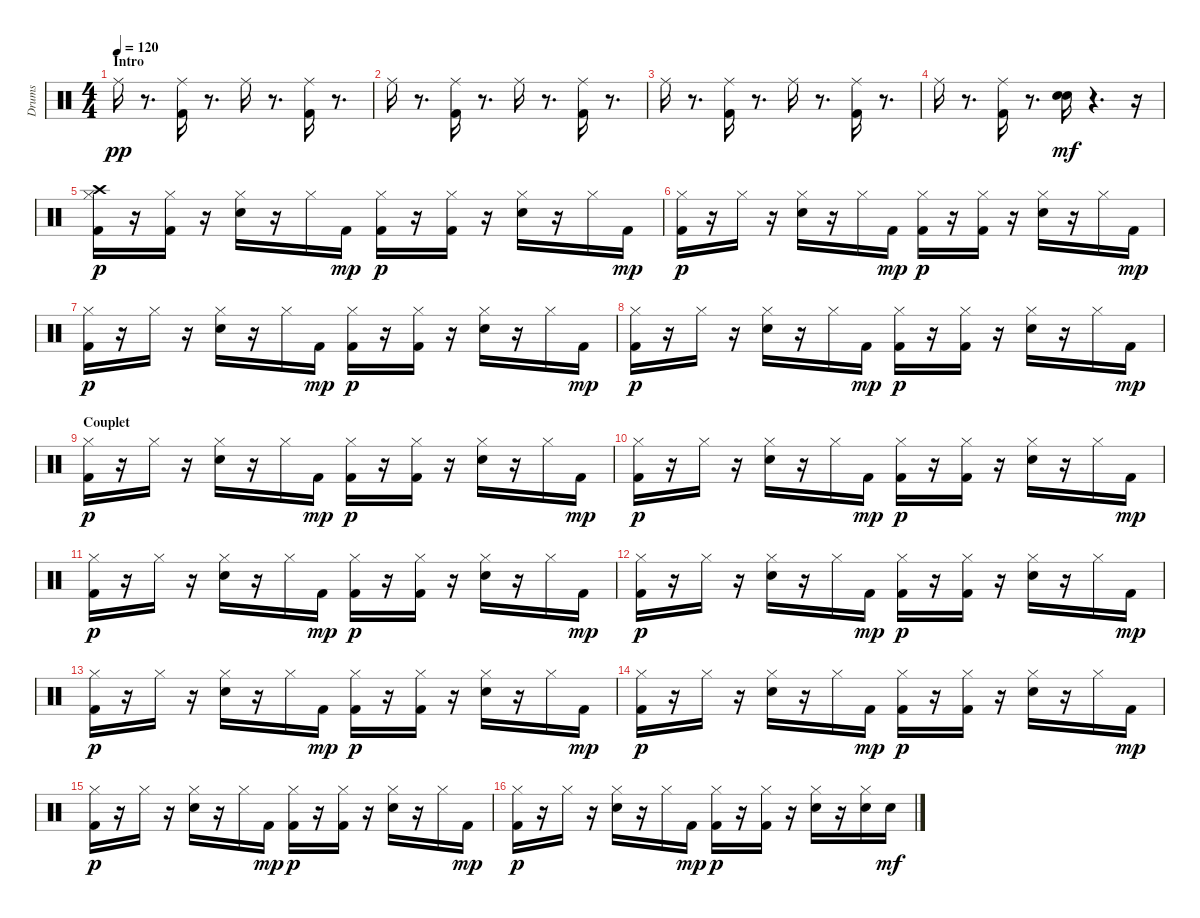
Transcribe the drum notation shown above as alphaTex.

\track ("Drums" "Drums") {instrument percussion}
\staff {score}
\articulation defaults
\ts (4 4)
\section ("" "Intro")
\tempo 120
\clef neutral
\ks c "Ride (middle)".16{dy pp}
r.8{d} ("Kick (hit) 2" "Ride (middle)").16 r.8{d} "Ride (middle)".16 r.8{d} ("Kick (hit) 2" "Ride (middle)").16 r.8{d} |
"Ride (middle)".16 r.8{d} ("Kick (hit) 2" "Ride (middle)").16 r.8{d} "Ride (middle)".16 r.8{d} ("Kick (hit) 2" "Ride (middle)").16 r.8{d} |
"Ride (middle)".16 r.8{d} ("Kick (hit) 2" "Ride (middle)").16 r.8{d} "Ride (middle)".16 r.8{d} ("Kick (hit) 2" "Ride (middle)").16 r.8{d} |
"Ride (middle)".16 r.8{d} ("Kick (hit) 2" "Ride (middle)").16 r.8{d} ("Electric Snare (hit)" "Electric Snare (hit)").16{dy mf} r.4{d} r.16 |
("Kick (hit) 2" "Hi-Hat (closed)" "Crash high (hit)").16{dy p} r.16 ("Kick (hit) 2" "Hi-Hat (closed)").16 r.16 ("Electric Snare (hit)" "Hi-Hat (closed)").16 r.16 "Hi-Hat (closed)".16 "Kick (hit) 2".16{dy mp} ("Kick (hit) 2" "Hi-Hat (closed)").16{dy p} r.16 ("Kick (hit) 2" "Hi-Hat (closed)").16 r.16 ("Electric Snare (hit)" "Hi-Hat (closed)").16 r.16 "Hi-Hat (closed)".16 "Kick (hit) 2".16{dy mp} |
("Kick (hit) 2" "Hi-Hat (closed)").16{dy p} r.16 "Hi-Hat (closed)".16 r.16 ("Electric Snare (hit)" "Hi-Hat (closed)").16 r.16 "Hi-Hat (closed)".16 "Kick (hit) 2".16{dy mp} ("Kick (hit) 2" "Hi-Hat (closed)").16{dy p} r.16 ("Kick (hit) 2" "Hi-Hat (closed)").16 r.16 ("Electric Snare (hit)" "Hi-Hat (closed)").16 r.16 "Hi-Hat (closed)".16 "Kick (hit) 2".16{dy mp} |
("Kick (hit) 2" "Hi-Hat (closed)").16{dy p} r.16 "Hi-Hat (closed)".16 r.16 ("Electric Snare (hit)" "Hi-Hat (closed)").16 r.16 "Hi-Hat (closed)".16 "Kick (hit) 2".16{dy mp} ("Kick (hit) 2" "Hi-Hat (closed)").16{dy p} r.16 ("Kick (hit) 2" "Hi-Hat (closed)").16 r.16 ("Electric Snare (hit)" "Hi-Hat (closed)").16 r.16 "Hi-Hat (closed)".16 "Kick (hit) 2".16{dy mp} |
("Kick (hit) 2" "Hi-Hat (closed)").16{dy p} r.16 "Hi-Hat (closed)".16 r.16 ("Electric Snare (hit)" "Hi-Hat (closed)").16 r.16 "Hi-Hat (closed)".16 "Kick (hit) 2".16{dy mp} ("Kick (hit) 2" "Hi-Hat (closed)").16{dy p} r.16 ("Kick (hit) 2" "Hi-Hat (closed)").16 r.16 ("Electric Snare (hit)" "Hi-Hat (closed)").16 r.16 "Hi-Hat (closed)".16 "Kick (hit) 2".16{dy mp} |
\section ("" "Couplet")
("Kick (hit) 2" "Hi-Hat (closed)").16{dy p} r.16 "Hi-Hat (closed)".16 r.16 ("Electric Snare (hit)" "Hi-Hat (closed)").16 r.16 "Hi-Hat (closed)".16 "Kick (hit) 2".16{dy mp} ("Kick (hit) 2" "Hi-Hat (closed)").16{dy p} r.16 ("Kick (hit) 2" "Hi-Hat (closed)").16 r.16 ("Electric Snare (hit)" "Hi-Hat (closed)").16 r.16 "Hi-Hat (closed)".16 "Kick (hit) 2".16{dy mp} |
("Kick (hit) 2" "Hi-Hat (closed)").16{dy p} r.16 "Hi-Hat (closed)".16 r.16 ("Electric Snare (hit)" "Hi-Hat (closed)").16 r.16 "Hi-Hat (closed)".16 "Kick (hit) 2".16{dy mp} ("Kick (hit) 2" "Hi-Hat (closed)").16{dy p} r.16 ("Kick (hit) 2" "Hi-Hat (closed)").16 r.16 ("Electric Snare (hit)" "Hi-Hat (closed)").16 r.16 "Hi-Hat (closed)".16 "Kick (hit) 2".16{dy mp} |
("Kick (hit) 2" "Hi-Hat (closed)").16{dy p} r.16 "Hi-Hat (closed)".16 r.16 ("Electric Snare (hit)" "Hi-Hat (closed)").16 r.16 "Hi-Hat (closed)".16 "Kick (hit) 2".16{dy mp} ("Kick (hit) 2" "Hi-Hat (closed)").16{dy p} r.16 ("Kick (hit) 2" "Hi-Hat (closed)").16 r.16 ("Electric Snare (hit)" "Hi-Hat (closed)").16 r.16 "Hi-Hat (closed)".16 "Kick (hit) 2".16{dy mp} |
("Kick (hit) 2" "Hi-Hat (closed)").16{dy p} r.16 "Hi-Hat (closed)".16 r.16 ("Electric Snare (hit)" "Hi-Hat (closed)").16 r.16 "Hi-Hat (closed)".16 "Kick (hit) 2".16{dy mp} ("Kick (hit) 2" "Hi-Hat (closed)").16{dy p} r.16 ("Kick (hit) 2" "Hi-Hat (closed)").16 r.16 ("Electric Snare (hit)" "Hi-Hat (closed)").16 r.16 "Hi-Hat (closed)".16 "Kick (hit) 2".16{dy mp} |
("Kick (hit) 2" "Hi-Hat (closed)").16{dy p} r.16 "Hi-Hat (closed)".16 r.16 ("Electric Snare (hit)" "Hi-Hat (closed)").16 r.16 "Hi-Hat (closed)".16 "Kick (hit) 2".16{dy mp} ("Kick (hit) 2" "Hi-Hat (closed)").16{dy p} r.16 ("Kick (hit) 2" "Hi-Hat (closed)").16 r.16 ("Electric Snare (hit)" "Hi-Hat (closed)").16 r.16 "Hi-Hat (closed)".16 "Kick (hit) 2".16{dy mp} |
("Kick (hit) 2" "Hi-Hat (closed)").16{dy p} r.16 "Hi-Hat (closed)".16 r.16 ("Electric Snare (hit)" "Hi-Hat (closed)").16 r.16 "Hi-Hat (closed)".16 "Kick (hit) 2".16{dy mp} ("Kick (hit) 2" "Hi-Hat (closed)").16{dy p} r.16 ("Kick (hit) 2" "Hi-Hat (closed)").16 r.16 ("Electric Snare (hit)" "Hi-Hat (closed)").16 r.16 "Hi-Hat (closed)".16 "Kick (hit) 2".16{dy mp} |
("Kick (hit) 2" "Hi-Hat (closed)").16{dy p} r.16 "Hi-Hat (closed)".16 r.16 ("Electric Snare (hit)" "Hi-Hat (closed)").16 r.16 "Hi-Hat (closed)".16 "Kick (hit) 2".16{dy mp} ("Kick (hit) 2" "Hi-Hat (closed)").16{dy p} r.16 ("Kick (hit) 2" "Hi-Hat (closed)").16 r.16 ("Electric Snare (hit)" "Hi-Hat (closed)").16 r.16 "Hi-Hat (closed)".16 "Kick (hit) 2".16{dy mp} |
("Kick (hit) 2" "Hi-Hat (closed)").16{dy p} r.16 "Hi-Hat (closed)".16 r.16 ("Electric Snare (hit)" "Hi-Hat (closed)").16 r.16 "Hi-Hat (closed)".16 "Kick (hit) 2".16{dy mp} ("Kick (hit) 2" "Hi-Hat (closed)").16{dy p} r.16 ("Kick (hit) 2" "Hi-Hat (closed)").16 r.16 ("Electric Snare (hit)" "Hi-Hat (closed)").16 r.16 ("Electric Snare (hit)" "Hi-Hat (closed)").16 "Electric Snare (hit)".16{dy mf}
